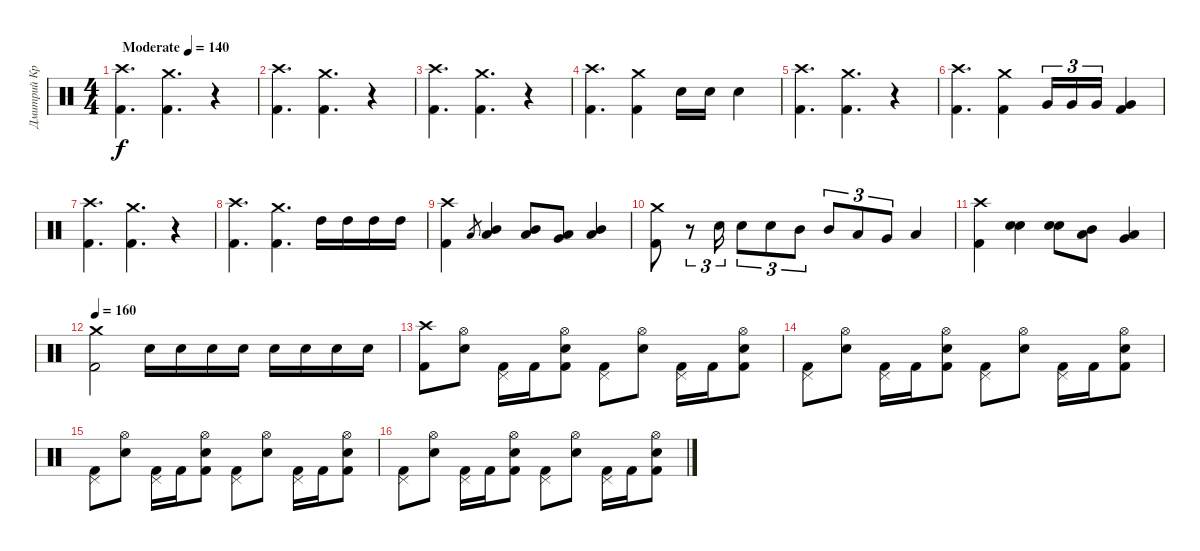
\track ("Дмитрий Кривенков" "Дмитрий Кр") {instrument percussion}
\staff {score}
\articulation defaults
\ts (4 4)
\tempo (140 "Moderate")
\clef neutral
\ks c
("Crash high (hit)" "Kick (hit) 2").4{d dy f} ("Crash medium (hit)" "Kick (hit) 2").4{d} r.4 |
("Crash high (hit)" "Kick (hit) 2").4{d} ("Crash medium (hit)" "Kick (hit) 2").4{d} r.4 |
("Crash high (hit)" "Kick (hit) 2").4{d} ("Crash medium (hit)" "Kick (hit) 2").4{d} r.4 |
("Crash high (hit)" "Kick (hit) 2").4{d} ("Crash medium (hit)" "Kick (hit) 2").4 "Electric Snare (hit)".16 "Electric Snare (hit)".16 "Electric Snare (hit)".4 |
("Crash high (hit)" "Kick (hit) 2").4{d} ("Crash medium (hit)" "Kick (hit) 2").4{d} r.4 |
("Crash high (hit)" "Kick (hit) 2").4{d} ("Crash medium (hit)" "Kick (hit) 2").4 "Very Low Tom (hit)".16{tu (3 2)} "Very Low Tom (hit)".16{tu (3 2)} "Very Low Tom (hit)".16{tu (3 2)} ("Very Low Tom (hit)" "Kick (hit) 2").4 |
("Crash high (hit)" "Kick (hit) 2").4{d} ("Crash medium (hit)" "Kick (hit) 2").4{d} r.4 |
("Crash high (hit)" "Kick (hit) 2").4{d} ("Crash medium (hit)" "Kick (hit) 2").4{d} "High Tom (hit)".16 "High Tom (hit)".16 "High Tom (hit)".16 "High Tom (hit)".16 |
("Crash high (hit)" "Kick (hit) 2").4 "Low Tom (hit)".8{gr} ("Mid Tom (hit)" "Low Tom (hit)").4 ("Low Tom (hit)" "Mid Tom (hit)").8 ("Low Tom (hit)" "Very Low Tom (hit)").8 ("Low Tom (hit)" "Mid Tom (hit)").4 |
("Crash medium (hit)" "Kick (hit) 2").8 r.8{tu (3 2)} "Electric Snare (hit)".16{tu (3 2)} "Electric Snare (hit)".8{tu (3 2)} "Electric Snare (hit)".8{tu (3 2)} "Mid Tom (hit)".8{tu (3 2)} "Mid Tom (hit)".8{tu (3 2)} "Low Tom (hit)".8{tu (3 2)} "Very Low Tom (hit)".8{tu (3 2)} "Low Tom (hit)".4 |
("Crash high (hit)" "Kick (hit) 2").4 ("Electric Snare (hit)" "Electric Snare (hit)").4 ("Electric Snare (hit)" "Electric Snare (hit)").8 ("Low Tom (hit)" "Mid Tom (hit)").8 ("Low Tom (hit)" "Very Low Tom (hit)").4 |
\tempo 160
("Crash medium (hit)" "Kick (hit) 2").2 "Electric Snare (hit)".16 "Electric Snare (hit)".16 "Electric Snare (hit)".16 "Electric Snare (hit)".16 "Electric Snare (hit)".16 "Electric Snare (hit)".16 "Electric Snare (hit)".16 "Electric Snare (hit)".16 |
("Crash high (hit)" "Kick (hit) 2").8 ("Hi-Hat (open)" "Electric Snare (hit)").8 ("Pedal Hi-Hat (hit)" "Kick (hit) 2").16 "Kick (hit) 2".16 ("Hi-Hat (open)" "Electric Snare (hit)" "Kick (hit) 2").8 ("Pedal Hi-Hat (hit)" "Kick (hit) 2").8 ("Hi-Hat (open)" "Electric Snare (hit)").8 ("Pedal Hi-Hat (hit)" "Kick (hit) 2").16 "Kick (hit) 2".16 ("Hi-Hat (open)" "Electric Snare (hit)" "Kick (hit) 2").8 |
("Pedal Hi-Hat (hit)" "Kick (hit) 2").8 ("Hi-Hat (open)" "Electric Snare (hit)").8 ("Pedal Hi-Hat (hit)" "Kick (hit) 2").16 "Kick (hit) 2".16 ("Hi-Hat (open)" "Electric Snare (hit)" "Kick (hit) 2").8 ("Pedal Hi-Hat (hit)" "Kick (hit) 2").8 ("Hi-Hat (open)" "Electric Snare (hit)").8 ("Pedal Hi-Hat (hit)" "Kick (hit) 2").16 "Kick (hit) 2".16 ("Hi-Hat (open)" "Electric Snare (hit)" "Kick (hit) 2").8 |
("Pedal Hi-Hat (hit)" "Kick (hit) 2").8 ("Hi-Hat (open)" "Electric Snare (hit)").8 ("Pedal Hi-Hat (hit)" "Kick (hit) 2").16 "Kick (hit) 2".16 ("Hi-Hat (open)" "Electric Snare (hit)" "Kick (hit) 2").8 ("Pedal Hi-Hat (hit)" "Kick (hit) 2").8 ("Hi-Hat (open)" "Electric Snare (hit)").8 ("Pedal Hi-Hat (hit)" "Kick (hit) 2").16 "Kick (hit) 2".16 ("Hi-Hat (open)" "Electric Snare (hit)" "Kick (hit) 2").8 |
("Pedal Hi-Hat (hit)" "Kick (hit) 2").8 ("Hi-Hat (open)" "Electric Snare (hit)").8 ("Pedal Hi-Hat (hit)" "Kick (hit) 2").16 "Kick (hit) 2".16 ("Hi-Hat (open)" "Electric Snare (hit)" "Kick (hit) 2").8 ("Pedal Hi-Hat (hit)" "Kick (hit) 2").8 ("Hi-Hat (open)" "Electric Snare (hit)").8 ("Pedal Hi-Hat (hit)" "Kick (hit) 2").16 "Kick (hit) 2".16 ("Hi-Hat (open)" "Electric Snare (hit)" "Kick (hit) 2").8
